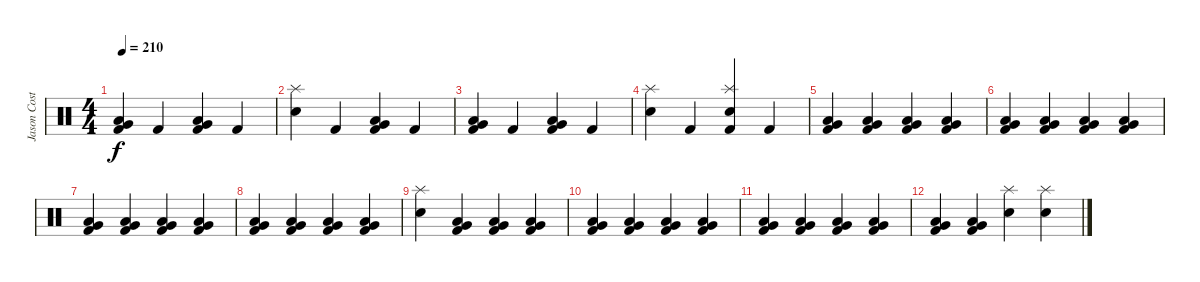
\track ("Jason Costa" "Jason Cost") {instrument percussion}
\staff {score}
\articulation defaults
\ts (4 4)
\tempo 210
\clef neutral
\ks c
("Low Tom (hit)" "Very Low Tom (hit)" "Kick (hit) 2").4{dy f} "Kick (hit) 2".4 ("Low Tom (hit)" "Very Low Tom (hit)" "Kick (hit) 2").4 "Kick (hit) 2".4 |
("Splash (hit)" "Electric Snare (hit)").4 "Kick (hit) 2".4 ("Low Tom (hit)" "Very Low Tom (hit)" "Kick (hit) 2").4 "Kick (hit) 2".4 |
("Low Tom (hit)" "Very Low Tom (hit)" "Kick (hit) 2").4 "Kick (hit) 2".4 ("Low Tom (hit)" "Very Low Tom (hit)" "Kick (hit) 2").4 "Kick (hit) 2".4 |
("Splash (hit)" "Electric Snare (hit)").4 "Kick (hit) 2".4 ("Splash (hit)" "Electric Snare (hit)" "Kick (hit) 2").4 "Kick (hit) 2".4 |
("Low Tom (hit)" "Very Low Tom (hit)" "Kick (hit) 2").4 ("Low Tom (hit)" "Very Low Tom (hit)" "Kick (hit) 2").4 ("Low Tom (hit)" "Very Low Tom (hit)" "Kick (hit) 2").4 ("Low Tom (hit)" "Very Low Tom (hit)" "Kick (hit) 2").4 |
("Low Tom (hit)" "Very Low Tom (hit)" "Kick (hit) 2").4 ("Low Tom (hit)" "Very Low Tom (hit)" "Kick (hit) 2").4 ("Low Tom (hit)" "Very Low Tom (hit)" "Kick (hit) 2").4 ("Low Tom (hit)" "Very Low Tom (hit)" "Kick (hit) 2").4 |
("Low Tom (hit)" "Very Low Tom (hit)" "Kick (hit) 2").4 ("Low Tom (hit)" "Very Low Tom (hit)" "Kick (hit) 2").4 ("Low Tom (hit)" "Very Low Tom (hit)" "Kick (hit) 2").4 ("Low Tom (hit)" "Very Low Tom (hit)" "Kick (hit) 2").4 |
("Low Tom (hit)" "Very Low Tom (hit)" "Kick (hit) 2").4 ("Low Tom (hit)" "Very Low Tom (hit)" "Kick (hit) 2").4 ("Low Tom (hit)" "Very Low Tom (hit)" "Kick (hit) 2").4 ("Low Tom (hit)" "Very Low Tom (hit)" "Kick (hit) 2").4 |
("Splash (hit)" "Electric Snare (hit)").4 ("Low Tom (hit)" "Very Low Tom (hit)" "Kick (hit) 2").4 ("Low Tom (hit)" "Very Low Tom (hit)" "Kick (hit) 2").4 ("Low Tom (hit)" "Very Low Tom (hit)" "Kick (hit) 2").4 |
("Low Tom (hit)" "Very Low Tom (hit)" "Kick (hit) 2").4 ("Low Tom (hit)" "Very Low Tom (hit)" "Kick (hit) 2").4 ("Low Tom (hit)" "Very Low Tom (hit)" "Kick (hit) 2").4 ("Low Tom (hit)" "Very Low Tom (hit)" "Kick (hit) 2").4 |
("Low Tom (hit)" "Very Low Tom (hit)" "Kick (hit) 2").4 ("Low Tom (hit)" "Very Low Tom (hit)" "Kick (hit) 2").4 ("Low Tom (hit)" "Very Low Tom (hit)" "Kick (hit) 2").4 ("Low Tom (hit)" "Very Low Tom (hit)" "Kick (hit) 2").4 |
("Low Tom (hit)" "Very Low Tom (hit)" "Kick (hit) 2").4 ("Low Tom (hit)" "Very Low Tom (hit)" "Kick (hit) 2").4 ("Splash (hit)" "Electric Snare (hit)").4 ("Splash (hit)" "Electric Snare (hit)").4
